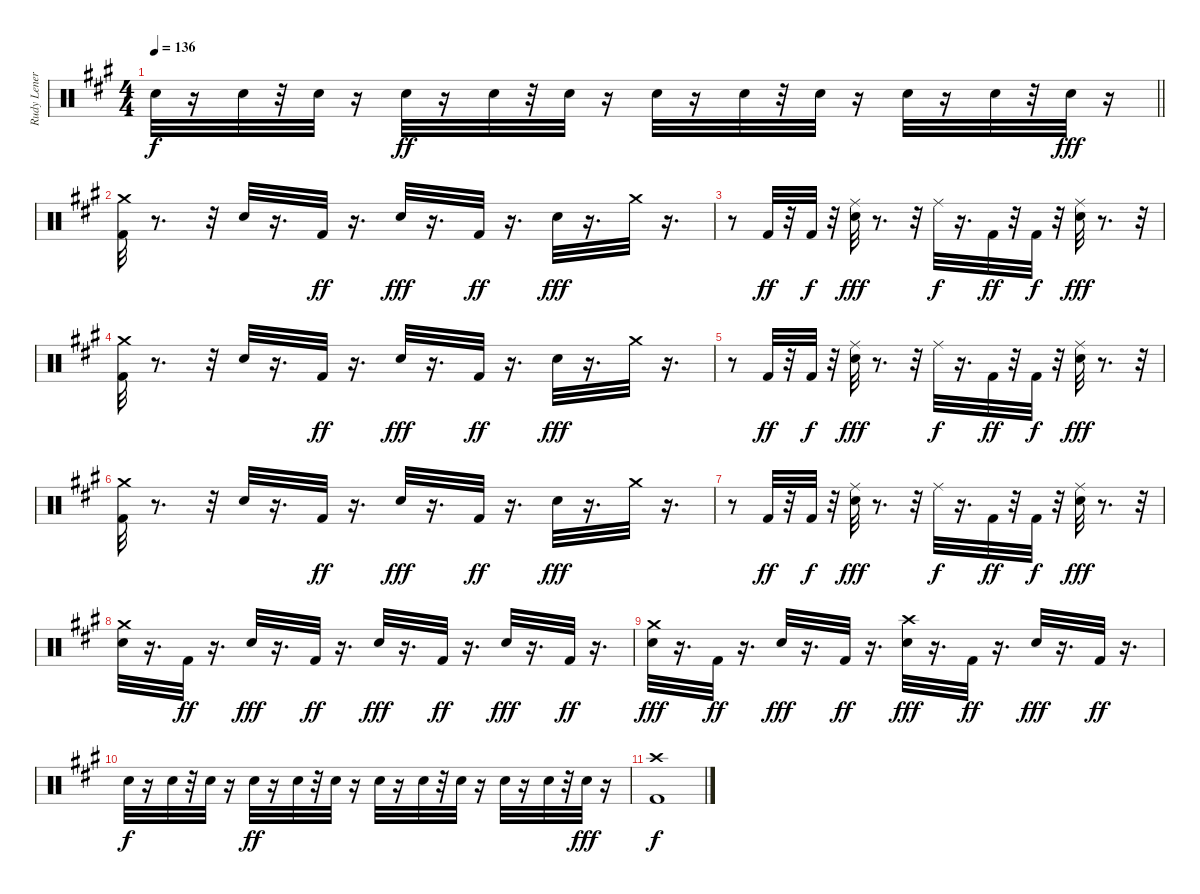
\track ("Rudy Leners" "Rudy Lener") {instrument percussion}
\staff {score}
\articulation defaults
\ts (4 4)
\tempo 136
\clef neutral
\barLineRight lightlight
\ks a "Snare (hit) 2".32{dy f}
r.16 "Snare (hit) 2".32 r.32 "Snare (hit) 2".32 r.16 "Snare (hit) 2".32{dy ff} r.16 "Snare (hit) 2".32 r.32 "Snare (hit) 2".32 r.16 "Snare (hit) 2".32 r.16 "Snare (hit) 2".32 r.32 "Snare (hit) 2".32 r.16 "Snare (hit) 2".32 r.16 "Snare (hit) 2".32 r.32 "Snare (hit) 2".32{dy fff} r.16 |
("Kick (hit) 2" "Crash medium (hit)").32 r.8{d} r.32 "Snare (hit) 2".32 r.16{d} "Kick (hit) 2".32{dy ff} r.16{d} "Snare (hit) 2".32{dy fff} r.16{d} "Kick (hit) 2".32{dy ff} r.16{d} "Snare (hit) 2".32{dy fff} r.16{d} "Crash medium (hit)".32 r.16{d} |
r.8 "Kick (hit) 2".32{dy ff} r.32 "Kick (hit) 2".32{dy f} r.32 ("Ride (middle)" "Snare (hit) 2").32{dy fff} r.8{d} r.32 "Ride (middle)".32{dy f} r.16{d} "Kick (hit) 2".32{dy ff} r.32 "Kick (hit) 2".32{dy f} r.32 ("Ride (middle)" "Snare (hit) 2").32{dy fff} r.8{d} r.32 |
("Kick (hit) 2" "Crash medium (hit)").32 r.8{d} r.32 "Snare (hit) 2".32 r.16{d} "Kick (hit) 2".32{dy ff} r.16{d} "Snare (hit) 2".32{dy fff} r.16{d} "Kick (hit) 2".32{dy ff} r.16{d} "Snare (hit) 2".32{dy fff} r.16{d} "Crash medium (hit)".32 r.16{d} |
r.8 "Kick (hit) 2".32{dy ff} r.32 "Kick (hit) 2".32{dy f} r.32 ("Ride (middle)" "Snare (hit) 2").32{dy fff} r.8{d} r.32 "Ride (middle)".32{dy f} r.16{d} "Kick (hit) 2".32{dy ff} r.32 "Kick (hit) 2".32{dy f} r.32 ("Ride (middle)" "Snare (hit) 2").32{dy fff} r.8{d} r.32 |
("Kick (hit) 2" "Crash medium (hit)").32 r.8{d} r.32 "Snare (hit) 2".32 r.16{d} "Kick (hit) 2".32{dy ff} r.16{d} "Snare (hit) 2".32{dy fff} r.16{d} "Kick (hit) 2".32{dy ff} r.16{d} "Snare (hit) 2".32{dy fff} r.16{d} "Crash medium (hit)".32 r.16{d} |
r.8 "Kick (hit) 2".32{dy ff} r.32 "Kick (hit) 2".32{dy f} r.32 ("Ride (middle)" "Snare (hit) 2").32{dy fff} r.8{d} r.32 "Ride (middle)".32{dy f} r.16{d} "Kick (hit) 2".32{dy ff} r.32 "Kick (hit) 2".32{dy f} r.32 ("Ride (middle)" "Snare (hit) 2").32{dy fff} r.8{d} r.32 |
("Crash medium (hit)" "Snare (hit) 2").32 r.16{d} "Kick (hit) 2".32{dy ff} r.16{d} "Snare (hit) 2".32{dy fff} r.16{d} "Kick (hit) 2".32{dy ff} r.16{d} "Snare (hit) 2".32{dy fff} r.16{d} "Kick (hit) 2".32{dy ff} r.16{d} "Snare (hit) 2".32{dy fff} r.16{d} "Kick (hit) 2".32{dy ff} r.16{d} |
("Snare (hit) 2" "Crash medium (hit)").32{dy fff} r.16{d} "Kick (hit) 2".32{dy ff} r.16{d} "Snare (hit) 2".32{dy fff} r.16{d} "Kick (hit) 2".32{dy ff} r.16{d} ("Crash high (hit)" "Snare (hit) 2").32{dy fff} r.16{d} "Kick (hit) 2".32{dy ff} r.16{d} "Snare (hit) 2".32{dy fff} r.16{d} "Kick (hit) 2".32{dy ff} r.16{d} |
"Snare (hit) 2".32{dy f} r.16 "Snare (hit) 2".32 r.32 "Snare (hit) 2".32 r.16 "Snare (hit) 2".32{dy ff} r.16 "Snare (hit) 2".32 r.32 "Snare (hit) 2".32 r.16 "Snare (hit) 2".32 r.16 "Snare (hit) 2".32 r.32 "Snare (hit) 2".32 r.16 "Snare (hit) 2".32 r.16 "Snare (hit) 2".32 r.32 "Snare (hit) 2".32{dy fff} r.16 |
("Crash high (hit)" "Kick (hit) 2").1{dy f}
